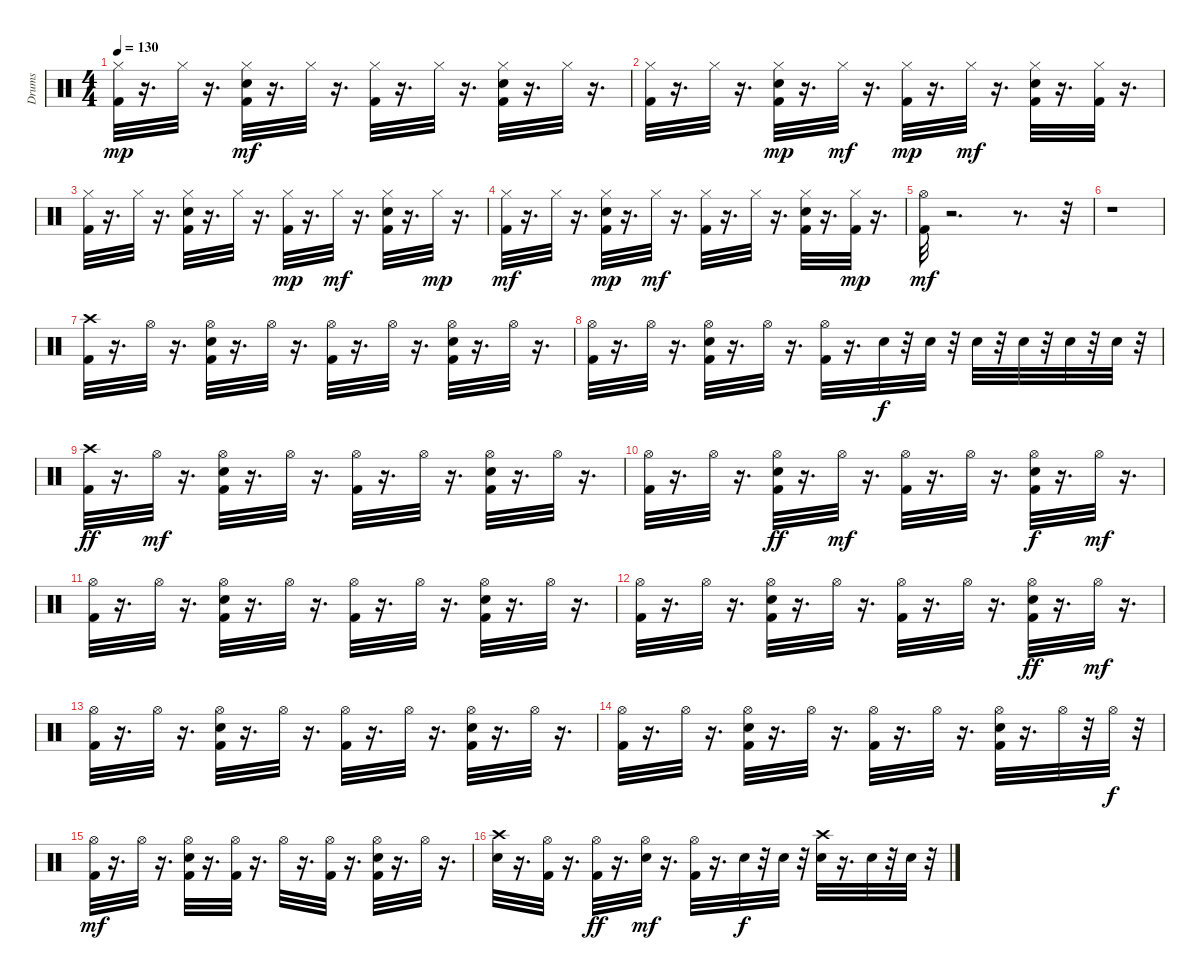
\track ("Drums" "Drums") {instrument percussion}
\staff {score}
\articulation defaults
\ts (4 4)
\tempo 130
\clef neutral
\ks c
("Kick (hit) 2" "Hi-Hat (closed)").32{dy mp} r.16{d} "Hi-Hat (closed)".32 r.16{d} ("Kick (hit) 2" "Hand Clap (hit)" "Hi-Hat (closed)").32{dy mf} r.16{d} "Hi-Hat (closed)".32 r.16{d} ("Kick (hit) 2" "Hi-Hat (closed)").32 r.16{d} "Hi-Hat (closed)".32 r.16{d} ("Kick (hit) 2" "Hand Clap (hit)" "Hi-Hat (closed)").32 r.16{d} "Hi-Hat (closed)".32 r.16{d} |
("Kick (hit) 2" "Hi-Hat (closed)").32 r.16{d} "Hi-Hat (closed)".32 r.16{d} ("Kick (hit) 2" "Hand Clap (hit)" "Hi-Hat (closed)").32{dy mp} r.16{d} "Hi-Hat (closed)".32{dy mf} r.16{d} ("Kick (hit) 2" "Hi-Hat (closed)").32{dy mp} r.16{d} "Hi-Hat (closed)".32{dy mf} r.16{d} ("Kick (hit) 2" "Hand Clap (hit)" "Hi-Hat (closed)").32 r.16{d} ("Kick (hit) 2" "Hi-Hat (closed)").32 r.16{d} |
("Kick (hit) 2" "Hi-Hat (closed)").32 r.16{d} "Hi-Hat (closed)".32 r.16{d} ("Kick (hit) 2" "Hand Clap (hit)" "Hi-Hat (closed)").32 r.16{d} "Hi-Hat (closed)".32 r.16{d} ("Kick (hit) 2" "Hi-Hat (closed)").32{dy mp} r.16{d} "Hi-Hat (closed)".32{dy mf} r.16{d} ("Kick (hit) 2" "Hand Clap (hit)" "Hi-Hat (closed)").32 r.16{d} "Hi-Hat (closed)".32{dy mp} r.16{d} |
("Kick (hit) 2" "Hi-Hat (closed)").32{dy mf} r.16{d} "Hi-Hat (closed)".32 r.16{d} ("Kick (hit) 2" "Hand Clap (hit)" "Hi-Hat (closed)").32{dy mp} r.16{d} "Hi-Hat (closed)".32{dy mf} r.16{d} ("Kick (hit) 2" "Hi-Hat (closed)").32 r.16{d} "Hi-Hat (closed)".32 r.16{d} ("Kick (hit) 2" "Hand Clap (hit)" "Hi-Hat (closed)").32 r.16{d} ("Kick (hit) 2" "Hi-Hat (closed)").32{dy mp} r.16{d} |
("Kick (hit) 2" "Hi-Hat (open)").32{dy mf} r.2{d} r.8{d} r.32 |
r.1 |
("Kick (hit) 2" "Crash high (hit)").32 r.16{d} "Hi-Hat (open)".32 r.16{d} ("Kick (hit) 2" "Electric Snare (hit)" "Hi-Hat (open)").32 r.16{d} "Hi-Hat (open)".32 r.16{d} ("Kick (hit) 2" "Hi-Hat (open)").32 r.16{d} "Hi-Hat (open)".32 r.16{d} ("Kick (hit) 2" "Electric Snare (hit)" "Hi-Hat (open)").32 r.16{d} "Hi-Hat (open)".32 r.16{d} |
("Kick (hit) 2" "Hi-Hat (open)").32 r.16{d} "Hi-Hat (open)".32 r.16{d} ("Kick (hit) 2" "Electric Snare (hit)" "Hi-Hat (open)").32 r.16{d} "Hi-Hat (open)".32 r.16{d} ("Kick (hit) 2" "Hi-Hat (open)").32 r.16{d} "Electric Snare (hit)".32{dy f} r.32 "Electric Snare (hit)".32 r.32 "Electric Snare (hit)".32 r.32 "Electric Snare (hit)".32 r.32 "Electric Snare (hit)".32 r.32 "Electric Snare (hit)".32 r.32 |
("Kick (hit) 2" "Crash high (hit)").32{dy ff} r.16{d} "Hi-Hat (open)".32{dy mf} r.16{d} ("Kick (hit) 2" "Electric Snare (hit)" "Hi-Hat (open)").32 r.16{d} "Hi-Hat (open)".32 r.16{d} ("Kick (hit) 2" "Hi-Hat (open)").32 r.16{d} "Hi-Hat (open)".32 r.16{d} ("Kick (hit) 2" "Electric Snare (hit)" "Hi-Hat (open)").32 r.16{d} "Hi-Hat (open)".32 r.16{d} |
("Kick (hit) 2" "Hi-Hat (open)").32 r.16{d} "Hi-Hat (open)".32 r.16{d} ("Kick (hit) 2" "Electric Snare (hit)" "Hi-Hat (open)").32{dy ff} r.16{d} "Hi-Hat (open)".32{dy mf} r.16{d} ("Kick (hit) 2" "Hi-Hat (open)").32 r.16{d} "Hi-Hat (open)".32 r.16{d} ("Kick (hit) 2" "Electric Snare (hit)" "Hi-Hat (open)").32{dy f} r.16{d} "Hi-Hat (open)".32{dy mf} r.16{d} |
("Kick (hit) 2" "Hi-Hat (open)").32 r.16{d} "Hi-Hat (open)".32 r.16{d} ("Kick (hit) 2" "Electric Snare (hit)" "Hi-Hat (open)").32 r.16{d} "Hi-Hat (open)".32 r.16{d} ("Kick (hit) 2" "Hi-Hat (open)").32 r.16{d} "Hi-Hat (open)".32 r.16{d} ("Kick (hit) 2" "Electric Snare (hit)" "Hi-Hat (open)").32 r.16{d} "Hi-Hat (open)".32 r.16{d} |
("Kick (hit) 2" "Hi-Hat (open)").32 r.16{d} "Hi-Hat (open)".32 r.16{d} ("Kick (hit) 2" "Electric Snare (hit)" "Hi-Hat (open)").32 r.16{d} "Hi-Hat (open)".32 r.16{d} ("Kick (hit) 2" "Hi-Hat (open)").32 r.16{d} "Hi-Hat (open)".32 r.16{d} ("Kick (hit) 2" "Electric Snare (hit)" "Hi-Hat (open)").32{dy ff} r.16{d} "Hi-Hat (open)".32{dy mf} r.16{d} |
("Kick (hit) 2" "Hi-Hat (open)").32 r.16{d} "Hi-Hat (open)".32 r.16{d} ("Kick (hit) 2" "Electric Snare (hit)" "Hi-Hat (open)").32 r.16{d} "Hi-Hat (open)".32 r.16{d} ("Kick (hit) 2" "Hi-Hat (open)").32 r.16{d} "Hi-Hat (open)".32 r.16{d} ("Kick (hit) 2" "Electric Snare (hit)" "Hi-Hat (open)").32 r.16{d} "Hi-Hat (open)".32 r.16{d} |
("Kick (hit) 2" "Hi-Hat (open)").32 r.16{d} "Hi-Hat (open)".32 r.16{d} ("Kick (hit) 2" "Electric Snare (hit)" "Hi-Hat (open)").32 r.16{d} "Hi-Hat (open)".32 r.16{d} ("Kick (hit) 2" "Hi-Hat (open)").32 r.16{d} "Hi-Hat (open)".32 r.16{d} ("Kick (hit) 2" "Electric Snare (hit)" "Hi-Hat (open)").32 r.16{d} "Hi-Hat (open)".32 r.32 "Hi-Hat (open)".32{dy f} r.32 |
("Kick (hit) 2" "Hi-Hat (open)").32{dy mf} r.16{d} "Hi-Hat (open)".32 r.16{d} ("Kick (hit) 2" "Electric Snare (hit)" "Hi-Hat (open)").32 r.16{d} ("Kick (hit) 2" "Hi-Hat (open)").32 r.16{d} "Hi-Hat (open)".32 r.16{d} ("Kick (hit) 2" "Hi-Hat (open)").32 r.16{d} ("Kick (hit) 2" "Electric Snare (hit)" "Hi-Hat (open)").32 r.16{d} "Hi-Hat (open)".32 r.16{d} |
("Electric Snare (hit)" "Crash high (hit)").32 r.16{d} ("Kick (hit) 2" "Hi-Hat (open)").32 r.16{d} ("Kick (hit) 2" "Hi-Hat (open)").32{dy ff} r.16{d} ("Electric Snare (hit)" "Hi-Hat (open)").32{dy mf} r.16{d} ("Kick (hit) 2" "Hi-Hat (open)").32 r.16{d} "Electric Snare (hit)".32{dy f} r.32 "Electric Snare (hit)".32 r.32 ("Electric Snare (hit)" "Crash high (hit)").32 r.16{d} "Electric Snare (hit)".32 r.32 "Electric Snare (hit)".32 r.32
